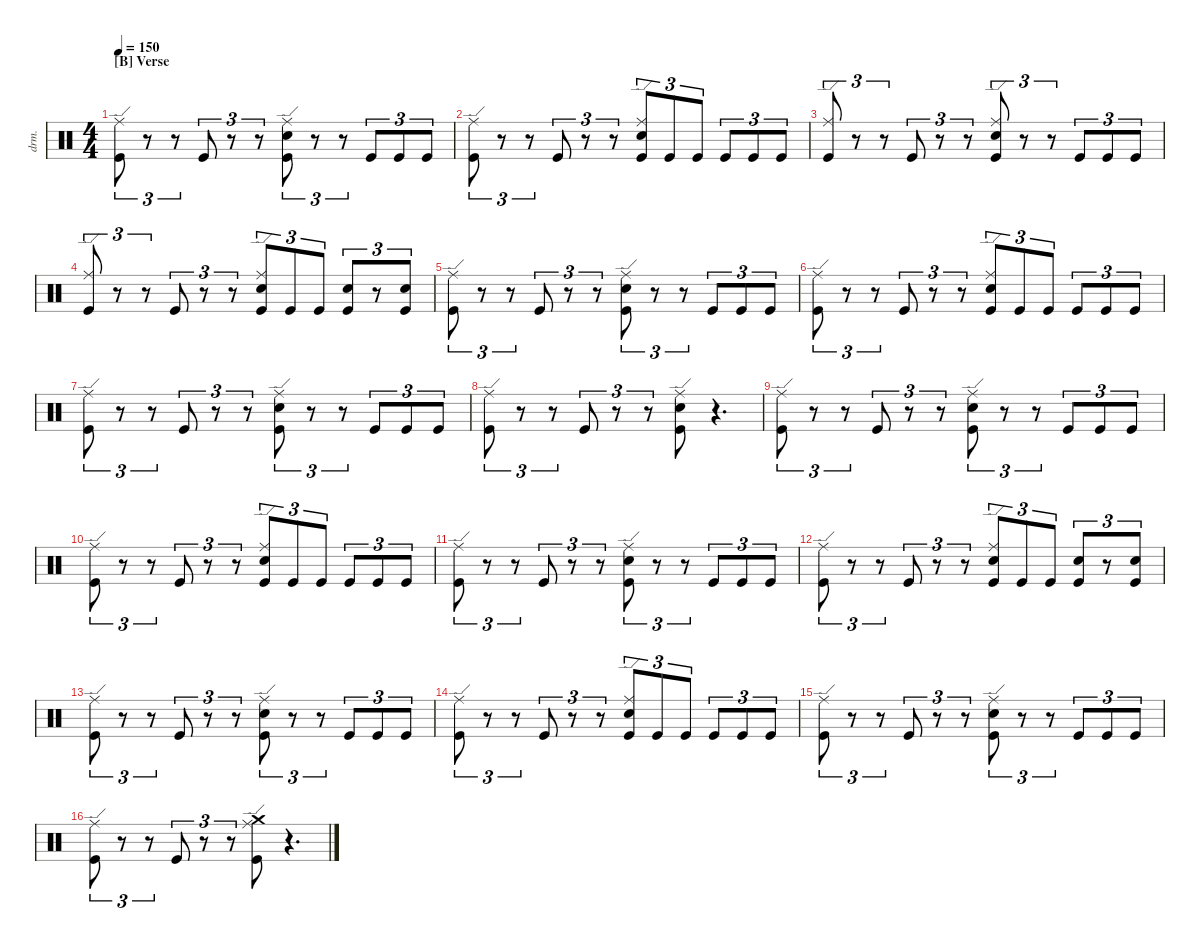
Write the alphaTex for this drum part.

\defaultSystemsLayout 4
\hideDynamics
\bracketExtendMode nobrackets
\otherSystemsTrackNameOrientation horizontal
\track ("Drumkit" "drm.") {solo instrument percussion}
\staff {score}
\articulation defaults
\ts (4 4)
\section ("B" "Verse")
\scale
1.07061
\tempo 150
\accidentals auto
\clef neutral
\ottava regular
\simile none
\ks aminor
("Kick (hit)" "Ride (edge)").8{tu (3 2) dy mf beam Down} r.8{tu (3 2) beam Down} r.8{tu (3 2) beam Down} "Kick (hit)".8{tu (3 2) beam Up} r.8{tu (3 2) beam Up} r.8{tu (3 2) beam Up} ("Kick (hit)" "Ride (edge)" "Snare (hit) 2").8{tu (3 2) beam Down} r.8{tu (3 2) beam Down} r.8{tu (3 2) beam Down} "Kick (hit)".8{tu (3 2) beam Up} "Kick (hit)".8{tu (3 2) beam Up} "Kick (hit)".8{tu (3 2) beam Up} |
\scale
0.976463 ("Kick (hit)" "Ride (edge)").8{tu (3 2) beam Down} r.8{tu (3 2) beam Down} r.8{tu (3 2) beam Down} "Kick (hit)".8{tu (3 2) beam Up} r.8{tu (3 2) beam Up} r.8{tu (3 2) beam Up} ("Kick (hit)" "Ride (edge)" "Snare (hit) 2").8{tu (3 2) beam Up} "Kick (hit)".8{tu (3 2) beam Up} "Kick (hit)".8{tu (3 2) beam Up} "Kick (hit)".8{tu (3 2) beam Up} "Kick (hit)".8{tu (3 2) beam Up} "Kick (hit)".8{tu (3 2) beam Up} |
\scale
0.976463 ("Kick (hit)" "Ride (edge)").8{tu (3 2) beam Up} r.8{tu (3 2) beam Up} r.8{tu (3 2) beam Up} "Kick (hit)".8{tu (3 2) beam Up} r.8{tu (3 2) beam Up} r.8{tu (3 2) beam Up} ("Kick (hit)" "Ride (edge)" "Snare (hit) 2").8{tu (3 2) beam Up} r.8{tu (3 2) beam Up} r.8{tu (3 2) beam Up} "Kick (hit)".8{tu (3 2) beam Up} "Kick (hit)".8{tu (3 2) beam Up} "Kick (hit)".8{tu (3 2) beam Up} |
\scale
0.976463 ("Kick (hit)" "Ride (edge)").8{tu (3 2) beam Up} r.8{tu (3 2) beam Up} r.8{tu (3 2) beam Up} "Kick (hit)".8{tu (3 2) beam Up} r.8{tu (3 2) beam Up} r.8{tu (3 2) beam Up} ("Kick (hit)" "Snare (hit) 2" "Ride (edge)").8{tu (3 2) beam Up} "Kick (hit)".8{tu (3 2) beam Up} "Kick (hit)".8{tu (3 2) beam Up} ("Kick (hit)" "Snare (hit) 2").8{tu (3 2) beam Up} r.8{tu (3 2) beam Up} ("Kick (hit)" "Snare (hit) 2").8{tu (3 2) beam Up} |
\scale
1.07061 ("Kick (hit)" "Ride (edge)").8{tu (3 2) beam Down} r.8{tu (3 2) beam Down} r.8{tu (3 2) beam Down} "Kick (hit)".8{tu (3 2) beam Up} r.8{tu (3 2) beam Up} r.8{tu (3 2) beam Up} ("Kick (hit)" "Ride (edge)" "Snare (hit) 2").8{tu (3 2) beam Down} r.8{tu (3 2) beam Down} r.8{tu (3 2) beam Down} "Kick (hit)".8{tu (3 2) beam Up} "Kick (hit)".8{tu (3 2) beam Up} "Kick (hit)".8{tu (3 2) beam Up} |
\scale
0.976463 ("Kick (hit)" "Ride (edge)").8{tu (3 2) beam Down} r.8{tu (3 2) beam Down} r.8{tu (3 2) beam Down} "Kick (hit)".8{tu (3 2) beam Up} r.8{tu (3 2) beam Up} r.8{tu (3 2) beam Up} ("Kick (hit)" "Ride (edge)" "Snare (hit) 2").8{tu (3 2) beam Up} "Kick (hit)".8{tu (3 2) beam Up} "Kick (hit)".8{tu (3 2) beam Up} "Kick (hit)".8{tu (3 2) beam Up} "Kick (hit)".8{tu (3 2) beam Up} "Kick (hit)".8{tu (3 2) beam Up} |
\scale
0.976463 ("Kick (hit)" "Ride (edge)").8{tu (3 2) beam Down} r.8{tu (3 2) beam Down} r.8{tu (3 2) beam Down} "Kick (hit)".8{tu (3 2) beam Up} r.8{tu (3 2) beam Up} r.8{tu (3 2) beam Up} ("Kick (hit)" "Ride (edge)" "Snare (hit) 2").8{tu (3 2) beam Down} r.8{tu (3 2) beam Down} r.8{tu (3 2) beam Down} "Kick (hit)".8{tu (3 2) beam Up} "Kick (hit)".8{tu (3 2) beam Up} "Kick (hit)".8{tu (3 2) beam Up} |
\scale
0.976463 ("Kick (hit)" "Ride (edge)").8{tu (3 2) beam Down} r.8{tu (3 2) beam Down} r.8{tu (3 2) beam Down} "Kick (hit)".8{tu (3 2) beam Up} r.8{tu (3 2) beam Up} r.8{tu (3 2) beam Up} ("Kick (hit)" "Ride (edge)" "Snare (hit) 2").8{beam Down} r.4{d beam Down} |
\scale
1.07061 ("Kick (hit)" "Ride (edge)").8{tu (3 2) beam Down} r.8{tu (3 2) beam Down} r.8{tu (3 2) beam Down} "Kick (hit)".8{tu (3 2) beam Up} r.8{tu (3 2) beam Up} r.8{tu (3 2) beam Up} ("Kick (hit)" "Ride (edge)" "Snare (hit) 2").8{tu (3 2) beam Down} r.8{tu (3 2) beam Down} r.8{tu (3 2) beam Down} "Kick (hit)".8{tu (3 2) beam Up} "Kick (hit)".8{tu (3 2) beam Up} "Kick (hit)".8{tu (3 2) beam Up} |
\scale
0.976463 ("Kick (hit)" "Ride (edge)").8{tu (3 2) beam Down} r.8{tu (3 2) beam Down} r.8{tu (3 2) beam Down} "Kick (hit)".8{tu (3 2) beam Up} r.8{tu (3 2) beam Up} r.8{tu (3 2) beam Up} ("Kick (hit)" "Ride (edge)" "Snare (hit) 2").8{tu (3 2) beam Up} "Kick (hit)".8{tu (3 2) beam Up} "Kick (hit)".8{tu (3 2) beam Up} "Kick (hit)".8{tu (3 2) beam Up} "Kick (hit)".8{tu (3 2) beam Up} "Kick (hit)".8{tu (3 2) beam Up} |
\scale
0.976463 ("Kick (hit)" "Ride (edge)").8{tu (3 2) beam Down} r.8{tu (3 2) beam Down} r.8{tu (3 2) beam Down} "Kick (hit)".8{tu (3 2) beam Up} r.8{tu (3 2) beam Up} r.8{tu (3 2) beam Up} ("Kick (hit)" "Ride (edge)" "Snare (hit) 2").8{tu (3 2) beam Down} r.8{tu (3 2) beam Down} r.8{tu (3 2) beam Down} "Kick (hit)".8{tu (3 2) beam Up} "Kick (hit)".8{tu (3 2) beam Up} "Kick (hit)".8{tu (3 2) beam Up} |
\scale
0.976463 ("Kick (hit)" "Ride (edge)").8{tu (3 2) beam Down} r.8{tu (3 2) beam Down} r.8{tu (3 2) beam Down} "Kick (hit)".8{tu (3 2) beam Up} r.8{tu (3 2) beam Up} r.8{tu (3 2) beam Up} ("Kick (hit)" "Snare (hit) 2" "Ride (edge)").8{tu (3 2) beam Up} "Kick (hit)".8{tu (3 2) beam Up} "Kick (hit)".8{tu (3 2) beam Up} ("Kick (hit)" "Snare (hit) 2").8{tu (3 2) beam Up} r.8{tu (3 2) beam Up} ("Kick (hit)" "Snare (hit) 2").8{tu (3 2) beam Up} |
\scale
1.06619 ("Kick (hit)" "Ride (edge)").8{tu (3 2) beam Down} r.8{tu (3 2) beam Down} r.8{tu (3 2) beam Down} "Kick (hit)".8{tu (3 2) beam Up} r.8{tu (3 2) beam Up} r.8{tu (3 2) beam Up} ("Kick (hit)" "Ride (edge)" "Snare (hit) 2").8{tu (3 2) beam Down} r.8{tu (3 2) beam Down} r.8{tu (3 2) beam Down} "Kick (hit)".8{tu (3 2) beam Up} "Kick (hit)".8{tu (3 2) beam Up} "Kick (hit)".8{tu (3 2) beam Up} |
\scale
0.972042 ("Kick (hit)" "Ride (edge)").8{tu (3 2) beam Down} r.8{tu (3 2) beam Down} r.8{tu (3 2) beam Down} "Kick (hit)".8{tu (3 2) beam Up} r.8{tu (3 2) beam Up} r.8{tu (3 2) beam Up} ("Kick (hit)" "Ride (edge)" "Snare (hit) 2").8{tu (3 2) beam Up} "Kick (hit)".8{tu (3 2) beam Up} "Kick (hit)".8{tu (3 2) beam Up} "Kick (hit)".8{tu (3 2) beam Up} "Kick (hit)".8{tu (3 2) beam Up} "Kick (hit)".8{tu (3 2) beam Up} |
\scale
0.972042 ("Kick (hit)" "Ride (edge)").8{tu (3 2) beam Down} r.8{tu (3 2) beam Down} r.8{tu (3 2) beam Down} "Kick (hit)".8{tu (3 2) beam Up} r.8{tu (3 2) beam Up} r.8{tu (3 2) beam Up} ("Kick (hit)" "Ride (edge)" "Snare (hit) 2").8{tu (3 2) beam Down} r.8{tu (3 2) beam Down} r.8{tu (3 2) beam Down} "Kick (hit)".8{tu (3 2) beam Up} "Kick (hit)".8{tu (3 2) beam Up} "Kick (hit)".8{tu (3 2) beam Up} |
\scale
0.989726 ("Kick (hit)" "Ride (edge)").8{tu (3 2) beam Down} r.8{tu (3 2) beam Down} r.8{tu (3 2) beam Down} "Kick (hit)".8{tu (3 2) beam Up} r.8{tu (3 2) beam Up} r.8{tu (3 2) beam Up} ("Kick (hit)" "Ride (edge)" "Crash medium (hit)").8{beam Down} r.4{d beam Down}
